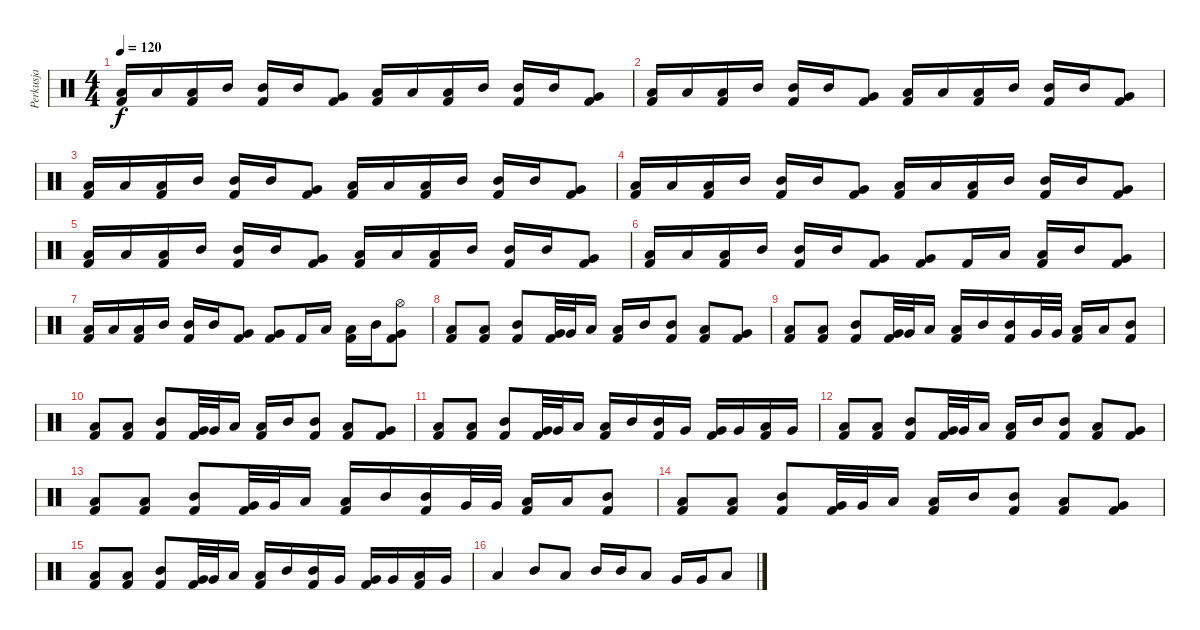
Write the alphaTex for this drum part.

\track ("Perkusja" "Perkusja") {instrument percussion}
\staff {score}
\articulation defaults
\ts (4 4)
\tempo 120
\clef neutral
\ks c
("Low Tom (hit)" "Kick (hit) 2").16{dy f} "Low Tom (hit)".16 ("Low Tom (hit)" "Kick (hit) 2").16 "Mid Tom (hit)".16 ("Mid Tom (hit)" "Kick (hit) 2").16 "Mid Tom (hit)".16 ("Very Low Tom (hit)" "Kick (hit) 2").8 ("Low Tom (hit)" "Kick (hit) 2").16 "Low Tom (hit)".16 ("Low Tom (hit)" "Kick (hit) 2").16 "Mid Tom (hit)".16 ("Mid Tom (hit)" "Kick (hit) 2").16 "Mid Tom (hit)".16 ("Very Low Tom (hit)" "Kick (hit) 2").8 |
("Low Tom (hit)" "Kick (hit) 2").16 "Low Tom (hit)".16 ("Low Tom (hit)" "Kick (hit) 2").16 "Mid Tom (hit)".16 ("Mid Tom (hit)" "Kick (hit) 2").16 "Mid Tom (hit)".16 ("Very Low Tom (hit)" "Kick (hit) 2").8 ("Low Tom (hit)" "Kick (hit) 2").16 "Low Tom (hit)".16 ("Low Tom (hit)" "Kick (hit) 2").16 "Mid Tom (hit)".16 ("Mid Tom (hit)" "Kick (hit) 2").16 "Mid Tom (hit)".16 ("Very Low Tom (hit)" "Kick (hit) 2").8 |
("Low Tom (hit)" "Kick (hit) 2").16 "Low Tom (hit)".16 ("Low Tom (hit)" "Kick (hit) 2").16 "Mid Tom (hit)".16 ("Mid Tom (hit)" "Kick (hit) 2").16 "Mid Tom (hit)".16 ("Very Low Tom (hit)" "Kick (hit) 2").8 ("Low Tom (hit)" "Kick (hit) 2").16 "Low Tom (hit)".16 ("Low Tom (hit)" "Kick (hit) 2").16 "Mid Tom (hit)".16 ("Mid Tom (hit)" "Kick (hit) 2").16 "Mid Tom (hit)".16 ("Very Low Tom (hit)" "Kick (hit) 2").8 |
("Low Tom (hit)" "Kick (hit) 2").16 "Low Tom (hit)".16 ("Low Tom (hit)" "Kick (hit) 2").16 "Mid Tom (hit)".16 ("Mid Tom (hit)" "Kick (hit) 2").16 "Mid Tom (hit)".16 ("Very Low Tom (hit)" "Kick (hit) 2").8 ("Low Tom (hit)" "Kick (hit) 2").16 "Low Tom (hit)".16 ("Low Tom (hit)" "Kick (hit) 2").16 "Mid Tom (hit)".16 ("Mid Tom (hit)" "Kick (hit) 2").16 "Mid Tom (hit)".16 ("Very Low Tom (hit)" "Kick (hit) 2").8 |
("Low Tom (hit)" "Kick (hit) 2").16 "Low Tom (hit)".16 ("Low Tom (hit)" "Kick (hit) 2").16 "Mid Tom (hit)".16 ("Mid Tom (hit)" "Kick (hit) 2").16 "Mid Tom (hit)".16 ("Very Low Tom (hit)" "Kick (hit) 2").8 ("Low Tom (hit)" "Kick (hit) 2").16 "Low Tom (hit)".16 ("Low Tom (hit)" "Kick (hit) 2").16 "Mid Tom (hit)".16 ("Mid Tom (hit)" "Kick (hit) 2").16 "Mid Tom (hit)".16 ("Very Low Tom (hit)" "Kick (hit) 2").8 |
("Low Tom (hit)" "Kick (hit) 2").16 "Low Tom (hit)".16 ("Low Tom (hit)" "Kick (hit) 2").16 "Mid Tom (hit)".16 ("Mid Tom (hit)" "Kick (hit) 2").16 "Mid Tom (hit)".16 ("Very Low Tom (hit)" "Kick (hit) 2").8 ("Very Low Tom (hit)" "Kick (hit) 2").8 "Kick (hit) 2".16 "Low Tom (hit)".16 ("Low Tom (hit)" "Kick (hit) 2").16 "Mid Tom (hit)".16 ("Very Low Tom (hit)" "Kick (hit) 2").8 |
("Low Tom (hit)" "Kick (hit) 2").16 "Low Tom (hit)".16 ("Low Tom (hit)" "Kick (hit) 2").16 "Mid Tom (hit)".16 ("Mid Tom (hit)" "Kick (hit) 2").16 "Mid Tom (hit)".16 ("Very Low Tom (hit)" "Kick (hit) 2").8 ("Very Low Tom (hit)" "Kick (hit) 2").8 "Kick (hit) 2".16 "Low Tom (hit)".16 ("Low Tom (hit)" "Kick (hit) 2").16 "Mid Tom (hit)".16 ("Hi-Hat (open)" "Very Low Tom (hit)" "Kick (hit) 2").8 |
("Low Tom (hit)" "Kick (hit) 2").8 ("Low Tom (hit)" "Kick (hit) 2").8 ("Mid Tom (hit)" "Kick (hit) 2").8 ("Very Low Tom (hit)" "Kick (hit) 2").32 "Very Low Tom (hit)".32 "Low Tom (hit)".16 ("Low Tom (hit)" "Kick (hit) 2").16 "Mid Tom (hit)".16 ("Mid Tom (hit)" "Kick (hit) 2").8 ("Low Tom (hit)" "Kick (hit) 2").8 ("Very Low Tom (hit)" "Kick (hit) 2").8 |
("Low Tom (hit)" "Kick (hit) 2").8 ("Low Tom (hit)" "Kick (hit) 2").8 ("Mid Tom (hit)" "Kick (hit) 2").8 ("Very Low Tom (hit)" "Kick (hit) 2").32 "Very Low Tom (hit)".32 "Low Tom (hit)".16 ("Low Tom (hit)" "Kick (hit) 2").16 "Mid Tom (hit)".16 ("Mid Tom (hit)" "Kick (hit) 2").16 "Very Low Tom (hit)".32 "Very Low Tom (hit)".32 ("Low Tom (hit)" "Kick (hit) 2").16 "Low Tom (hit)".16 ("Mid Tom (hit)" "Kick (hit) 2").8 |
("Low Tom (hit)" "Kick (hit) 2").8 ("Low Tom (hit)" "Kick (hit) 2").8 ("Mid Tom (hit)" "Kick (hit) 2").8 ("Very Low Tom (hit)" "Kick (hit) 2").32 "Very Low Tom (hit)".32 "Low Tom (hit)".16 ("Low Tom (hit)" "Kick (hit) 2").16 "Mid Tom (hit)".16 ("Mid Tom (hit)" "Kick (hit) 2").8 ("Low Tom (hit)" "Kick (hit) 2").8 ("Very Low Tom (hit)" "Kick (hit) 2").8 |
("Low Tom (hit)" "Kick (hit) 2").8 ("Low Tom (hit)" "Kick (hit) 2").8 ("Mid Tom (hit)" "Kick (hit) 2").8 ("Very Low Tom (hit)" "Kick (hit) 2").32 "Very Low Tom (hit)".32 "Low Tom (hit)".16 ("Low Tom (hit)" "Kick (hit) 2").16 "Mid Tom (hit)".16 ("Mid Tom (hit)" "Kick (hit) 2").16 "Very Low Tom (hit)".16 ("Very Low Tom (hit)" "Kick (hit) 2").16 "Very Low Tom (hit)".16 ("Low Tom (hit)" "Kick (hit) 2").16 "Very Low Tom (hit)".16 |
("Low Tom (hit)" "Kick (hit) 2").8 ("Low Tom (hit)" "Kick (hit) 2").8 ("Mid Tom (hit)" "Kick (hit) 2").8 ("Very Low Tom (hit)" "Kick (hit) 2").32 "Very Low Tom (hit)".32 "Low Tom (hit)".16 ("Low Tom (hit)" "Kick (hit) 2").16 "Mid Tom (hit)".16 ("Mid Tom (hit)" "Kick (hit) 2").8 ("Low Tom (hit)" "Kick (hit) 2").8 ("Very Low Tom (hit)" "Kick (hit) 2").8 |
("Low Tom (hit)" "Kick (hit) 2").8 ("Low Tom (hit)" "Kick (hit) 2").8 ("Mid Tom (hit)" "Kick (hit) 2").8 ("Very Low Tom (hit)" "Kick (hit) 2").32 "Very Low Tom (hit)".32 "Low Tom (hit)".16 ("Low Tom (hit)" "Kick (hit) 2").16 "Mid Tom (hit)".16 ("Mid Tom (hit)" "Kick (hit) 2").16 "Very Low Tom (hit)".32 "Very Low Tom (hit)".32 ("Low Tom (hit)" "Kick (hit) 2").16 "Low Tom (hit)".16 ("Mid Tom (hit)" "Kick (hit) 2").8 |
("Low Tom (hit)" "Kick (hit) 2").8 ("Low Tom (hit)" "Kick (hit) 2").8 ("Mid Tom (hit)" "Kick (hit) 2").8 ("Very Low Tom (hit)" "Kick (hit) 2").32 "Very Low Tom (hit)".32 "Low Tom (hit)".16 ("Low Tom (hit)" "Kick (hit) 2").16 "Mid Tom (hit)".16 ("Mid Tom (hit)" "Kick (hit) 2").8 ("Low Tom (hit)" "Kick (hit) 2").8 ("Very Low Tom (hit)" "Kick (hit) 2").8 |
("Low Tom (hit)" "Kick (hit) 2").8 ("Low Tom (hit)" "Kick (hit) 2").8 ("Mid Tom (hit)" "Kick (hit) 2").8 ("Very Low Tom (hit)" "Kick (hit) 2").32 "Very Low Tom (hit)".32 "Low Tom (hit)".16 ("Low Tom (hit)" "Kick (hit) 2").16 "Mid Tom (hit)".16 ("Mid Tom (hit)" "Kick (hit) 2").16 "Very Low Tom (hit)".16 ("Very Low Tom (hit)" "Kick (hit) 2").16 "Very Low Tom (hit)".16 ("Low Tom (hit)" "Kick (hit) 2").16 "Very Low Tom (hit)".16 |
"Low Tom (hit)".4 "Mid Tom (hit)".8 "Low Tom (hit)".8 "Mid Tom (hit)".16 "Mid Tom (hit)".16 "Low Tom (hit)".8 "Very Low Tom (hit)".16 "Very Low Tom (hit)".16 "Low Tom (hit)".8
